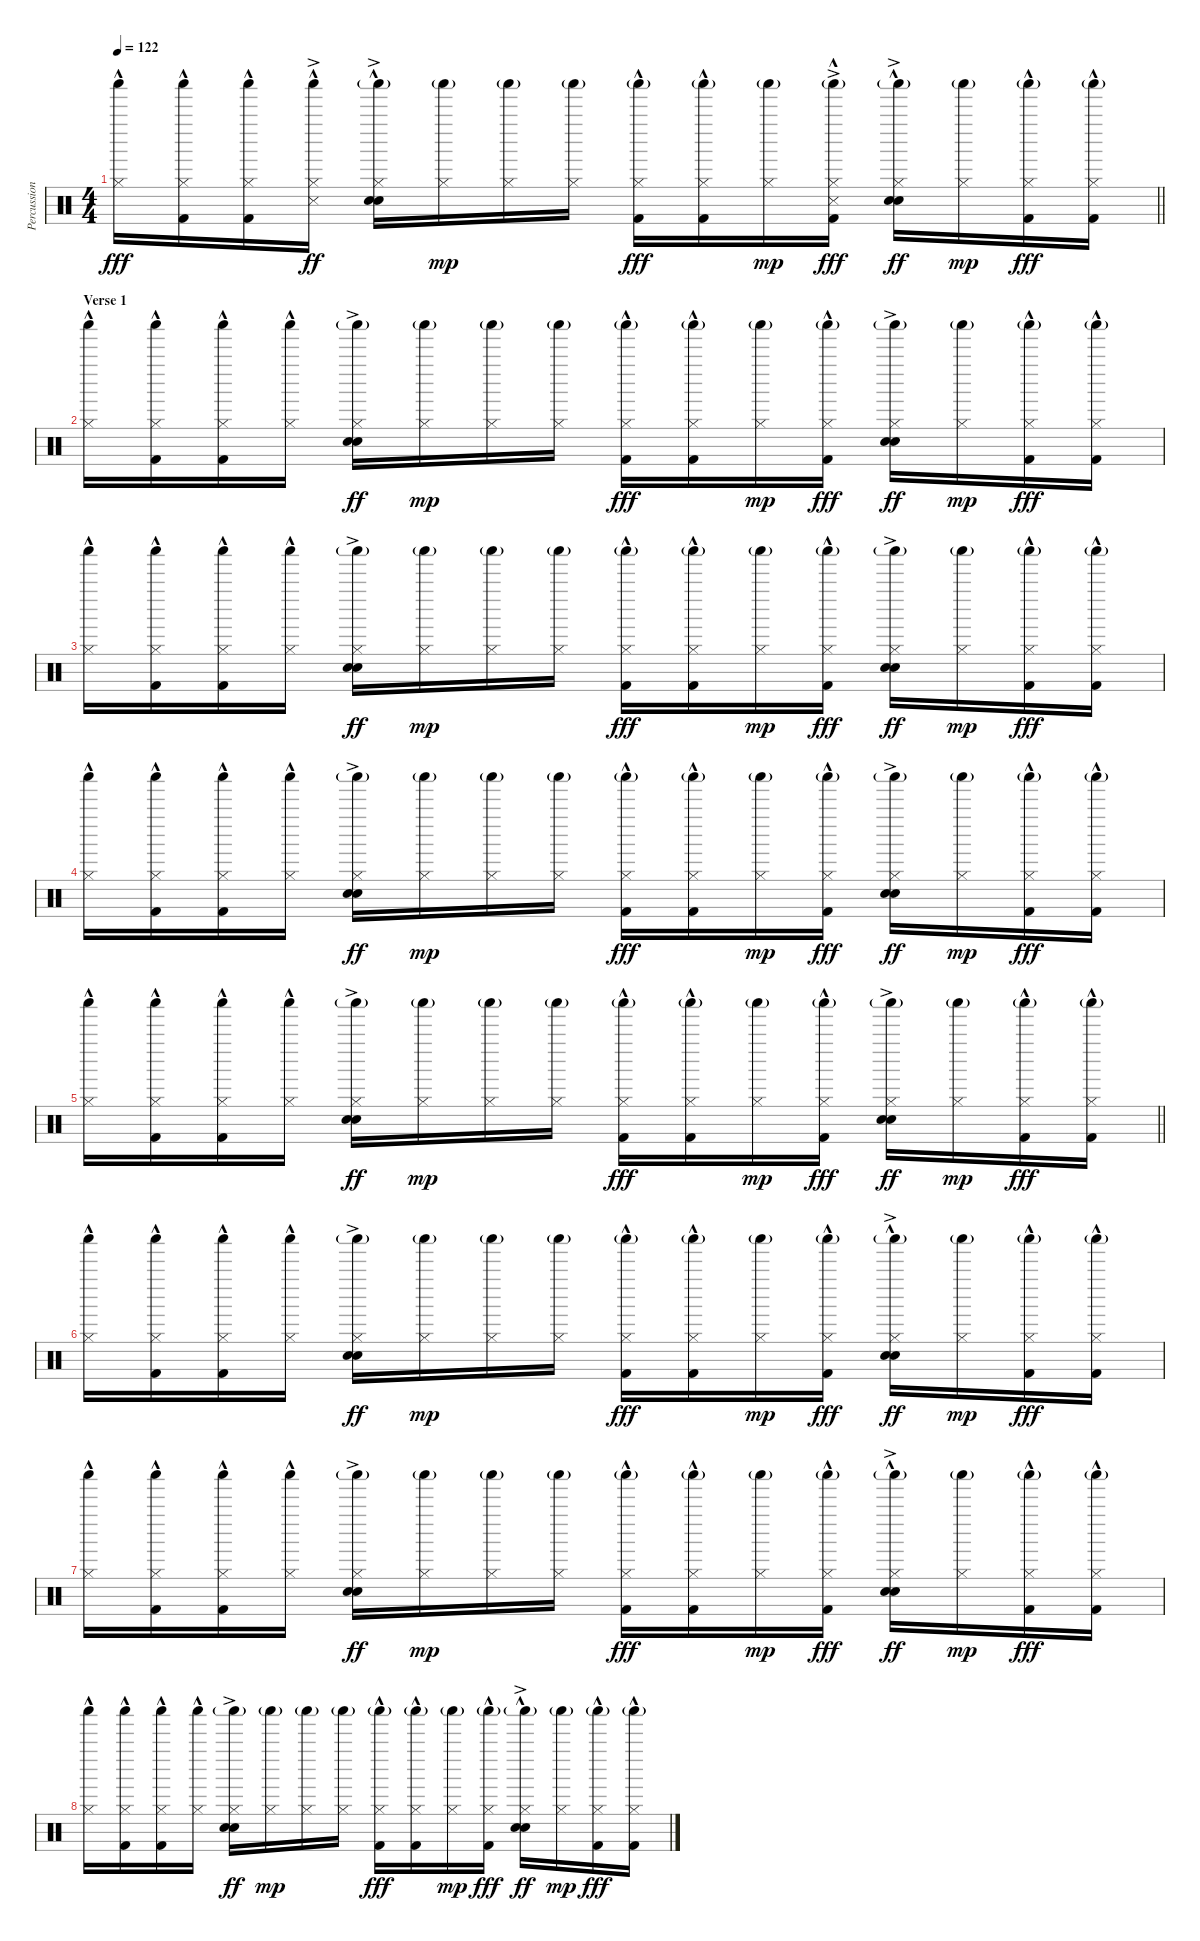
\track ("Percussion" "Percussion") {instrument percussion}
\staff {score}
\articulation defaults
\ts (4 4)
\tempo 122
\clef neutral
\barLineRight lightlight
\ks c
("Shaker (hit)" "Hi-Hat (closed)"{hac}).16{dy fff} ("Shaker (hit)" "Hi-Hat (closed)"{hac} "Kick (hit) 2"{hac}).16 ("Shaker (hit)" "Hi-Hat (closed)"{hac} "Kick (hit) 2"{hac}).16 ("Shaker (hit)" "Hi-Hat (closed)"{hac} "Snare (side stick) 3"{ac}).16{dy ff} ("Shaker (hit)"{g} "Hi-Hat (closed)" "Hand Clap (hit)"{hac} "Snare (hit) 2"{ac}).16 ("Shaker (hit)"{g} "Hi-Hat (closed)").16{dy mp} ("Shaker (hit)"{g} "Hi-Hat (closed)").16 ("Shaker (hit)"{g} "Hi-Hat (closed)").16 ("Shaker (hit)"{g} "Hi-Hat (closed)" "Kick (hit) 2"{hac}).16{dy fff} ("Shaker (hit)"{g} "Hi-Hat (closed)" "Kick (hit) 2"{hac}).16 ("Shaker (hit)"{g} "Hi-Hat (closed)").16{dy mp} ("Shaker (hit)"{g} "Hi-Hat (closed)" "Snare (side stick) 3"{ac} "Kick (hit) 2"{hac}).16{dy fff} ("Shaker (hit)"{g} "Hi-Hat (closed)" "Hand Clap (hit)"{hac} "Snare (hit) 2"{ac}).16{dy ff} ("Shaker (hit)"{g} "Hi-Hat (closed)").16{dy mp} ("Shaker (hit)"{g} "Hi-Hat (closed)" "Kick (hit) 2"{hac}).16{dy fff} ("Shaker (hit)"{g} "Hi-Hat (closed)" "Kick (hit) 2"{hac}).16 |
\section ("" "Verse 1")
("Shaker (hit)" "Hi-Hat (closed)"{hac}).16 ("Shaker (hit)" "Hi-Hat (closed)"{hac} "Kick (hit) 2"{hac}).16 ("Shaker (hit)" "Hi-Hat (closed)"{hac} "Kick (hit) 2"{hac}).16 ("Shaker (hit)" "Hi-Hat (closed)"{hac}).16 ("Shaker (hit)"{g} "Hi-Hat (closed)" "Hand Clap (hit)" "Snare (hit) 2"{ac}).16{dy ff} ("Shaker (hit)"{g} "Hi-Hat (closed)").16{dy mp} ("Shaker (hit)"{g} "Hi-Hat (closed)").16 ("Shaker (hit)"{g} "Hi-Hat (closed)").16 ("Shaker (hit)"{g} "Hi-Hat (closed)" "Kick (hit) 2"{hac}).16{dy fff} ("Shaker (hit)"{g} "Hi-Hat (closed)" "Kick (hit) 2"{hac}).16 ("Shaker (hit)"{g} "Hi-Hat (closed)").16{dy mp} ("Shaker (hit)"{g} "Hi-Hat (closed)" "Kick (hit) 2"{hac}).16{dy fff} ("Shaker (hit)"{g} "Hi-Hat (closed)" "Hand Clap (hit)"{ac} "Snare (hit) 2"{ac}).16{dy ff} ("Shaker (hit)"{g} "Hi-Hat (closed)").16{dy mp} ("Shaker (hit)"{g} "Hi-Hat (closed)" "Kick (hit) 2"{hac}).16{dy fff} ("Shaker (hit)"{g} "Hi-Hat (closed)" "Kick (hit) 2"{hac}).16 |
("Shaker (hit)" "Hi-Hat (closed)"{hac}).16 ("Shaker (hit)" "Hi-Hat (closed)"{hac} "Kick (hit) 2"{hac}).16 ("Shaker (hit)" "Hi-Hat (closed)"{hac} "Kick (hit) 2"{hac}).16 ("Shaker (hit)" "Hi-Hat (closed)"{hac}).16 ("Shaker (hit)"{g} "Hi-Hat (closed)" "Hand Clap (hit)" "Snare (hit) 2"{ac}).16{dy ff} ("Shaker (hit)"{g} "Hi-Hat (closed)").16{dy mp} ("Shaker (hit)"{g} "Hi-Hat (closed)").16 ("Shaker (hit)"{g} "Hi-Hat (closed)").16 ("Shaker (hit)"{g} "Hi-Hat (closed)" "Kick (hit) 2"{hac}).16{dy fff} ("Shaker (hit)"{g} "Hi-Hat (closed)" "Kick (hit) 2"{hac}).16 ("Shaker (hit)"{g} "Hi-Hat (closed)").16{dy mp} ("Shaker (hit)"{g} "Hi-Hat (closed)" "Kick (hit) 2"{hac}).16{dy fff} ("Shaker (hit)"{g} "Hi-Hat (closed)" "Hand Clap (hit)"{ac} "Snare (hit) 2"{ac}).16{dy ff} ("Shaker (hit)"{g} "Hi-Hat (closed)").16{dy mp} ("Shaker (hit)"{g} "Hi-Hat (closed)" "Kick (hit) 2"{hac}).16{dy fff} ("Shaker (hit)"{g} "Hi-Hat (closed)" "Kick (hit) 2"{hac}).16 |
("Shaker (hit)" "Hi-Hat (closed)"{hac}).16 ("Shaker (hit)" "Hi-Hat (closed)"{hac} "Kick (hit) 2"{hac}).16 ("Shaker (hit)" "Hi-Hat (closed)"{hac} "Kick (hit) 2"{hac}).16 ("Shaker (hit)" "Hi-Hat (closed)"{hac}).16 ("Shaker (hit)"{g} "Hi-Hat (closed)" "Hand Clap (hit)" "Snare (hit) 2"{ac}).16{dy ff} ("Shaker (hit)"{g} "Hi-Hat (closed)").16{dy mp} ("Shaker (hit)"{g} "Hi-Hat (closed)").16 ("Shaker (hit)"{g} "Hi-Hat (closed)").16 ("Shaker (hit)"{g} "Hi-Hat (closed)" "Kick (hit) 2"{hac}).16{dy fff} ("Shaker (hit)"{g} "Hi-Hat (closed)" "Kick (hit) 2"{hac}).16 ("Shaker (hit)"{g} "Hi-Hat (closed)").16{dy mp} ("Shaker (hit)"{g} "Hi-Hat (closed)" "Kick (hit) 2"{hac}).16{dy fff} ("Shaker (hit)"{g} "Hi-Hat (closed)" "Hand Clap (hit)"{ac} "Snare (hit) 2"{ac}).16{dy ff} ("Shaker (hit)"{g} "Hi-Hat (closed)").16{dy mp} ("Shaker (hit)"{g} "Hi-Hat (closed)" "Kick (hit) 2"{hac}).16{dy fff} ("Shaker (hit)"{g} "Hi-Hat (closed)" "Kick (hit) 2"{hac}).16 |
\barLineRight lightlight
("Shaker (hit)" "Hi-Hat (closed)"{hac}).16 ("Shaker (hit)" "Hi-Hat (closed)"{hac} "Kick (hit) 2"{hac}).16 ("Shaker (hit)" "Hi-Hat (closed)"{hac} "Kick (hit) 2"{hac}).16 ("Shaker (hit)" "Hi-Hat (closed)"{hac}).16 ("Shaker (hit)"{g} "Hi-Hat (closed)" "Hand Clap (hit)" "Snare (hit) 2"{ac}).16{dy ff} ("Shaker (hit)"{g} "Hi-Hat (closed)").16{dy mp} ("Shaker (hit)"{g} "Hi-Hat (closed)").16 ("Shaker (hit)"{g} "Hi-Hat (closed)").16 ("Shaker (hit)"{g} "Hi-Hat (closed)" "Kick (hit) 2"{hac}).16{dy fff} ("Shaker (hit)"{g} "Hi-Hat (closed)" "Kick (hit) 2"{hac}).16 ("Shaker (hit)"{g} "Hi-Hat (closed)").16{dy mp} ("Shaker (hit)"{g} "Hi-Hat (closed)" "Kick (hit) 2"{hac}).16{dy fff} ("Shaker (hit)"{g} "Hi-Hat (closed)" "Hand Clap (hit)"{ac} "Snare (hit) 2"{ac}).16{dy ff} ("Shaker (hit)"{g} "Hi-Hat (closed)").16{dy mp} ("Shaker (hit)"{g} "Hi-Hat (closed)" "Kick (hit) 2"{hac}).16{dy fff} ("Shaker (hit)"{g} "Hi-Hat (closed)" "Kick (hit) 2"{hac}).16 |
("Shaker (hit)" "Hi-Hat (closed)"{hac}).16 ("Shaker (hit)" "Hi-Hat (closed)"{hac} "Kick (hit) 2"{hac}).16 ("Shaker (hit)" "Hi-Hat (closed)"{hac} "Kick (hit) 2"{hac}).16 ("Shaker (hit)" "Hi-Hat (closed)"{hac}).16 ("Shaker (hit)"{g} "Hi-Hat (closed)" "Hand Clap (hit)"{ac} "Snare (hit) 2"{ac}).16{dy ff} ("Shaker (hit)"{g} "Hi-Hat (closed)").16{dy mp} ("Shaker (hit)"{g} "Hi-Hat (closed)").16 ("Shaker (hit)"{g} "Hi-Hat (closed)").16 ("Shaker (hit)"{g} "Hi-Hat (closed)" "Kick (hit) 2"{hac}).16{dy fff} ("Shaker (hit)"{g} "Hi-Hat (closed)" "Kick (hit) 2"{hac}).16 ("Shaker (hit)"{g} "Hi-Hat (closed)").16{dy mp} ("Shaker (hit)"{g} "Hi-Hat (closed)" "Kick (hit) 2"{hac}).16{dy fff} ("Shaker (hit)"{g} "Hi-Hat (closed)" "Hand Clap (hit)"{hac} "Snare (hit) 2"{ac}).16{dy ff} ("Shaker (hit)"{g} "Hi-Hat (closed)").16{dy mp} ("Shaker (hit)"{g} "Hi-Hat (closed)" "Kick (hit) 2"{hac}).16{dy fff} ("Shaker (hit)"{g} "Hi-Hat (closed)" "Kick (hit) 2"{hac}).16 |
("Shaker (hit)" "Hi-Hat (closed)"{hac}).16 ("Shaker (hit)" "Hi-Hat (closed)"{hac} "Kick (hit) 2"{hac}).16 ("Shaker (hit)" "Hi-Hat (closed)"{hac} "Kick (hit) 2"{hac}).16 ("Shaker (hit)" "Hi-Hat (closed)"{hac}).16 ("Shaker (hit)"{g} "Hi-Hat (closed)" "Hand Clap (hit)"{ac} "Snare (hit) 2"{ac}).16{dy ff} ("Shaker (hit)"{g} "Hi-Hat (closed)").16{dy mp} ("Shaker (hit)"{g} "Hi-Hat (closed)").16 ("Shaker (hit)"{g} "Hi-Hat (closed)").16 ("Shaker (hit)"{g} "Hi-Hat (closed)" "Kick (hit) 2"{hac}).16{dy fff} ("Shaker (hit)"{g} "Hi-Hat (closed)" "Kick (hit) 2"{hac}).16 ("Shaker (hit)"{g} "Hi-Hat (closed)").16{dy mp} ("Shaker (hit)"{g} "Hi-Hat (closed)" "Kick (hit) 2"{hac}).16{dy fff} ("Shaker (hit)"{g} "Hi-Hat (closed)" "Hand Clap (hit)"{hac} "Snare (hit) 2"{ac}).16{dy ff} ("Shaker (hit)"{g} "Hi-Hat (closed)").16{dy mp} ("Shaker (hit)"{g} "Hi-Hat (closed)" "Kick (hit) 2"{hac}).16{dy fff} ("Shaker (hit)"{g} "Hi-Hat (closed)" "Kick (hit) 2"{hac}).16 |
("Shaker (hit)" "Hi-Hat (closed)"{hac}).16 ("Shaker (hit)" "Hi-Hat (closed)"{hac} "Kick (hit) 2"{hac}).16 ("Shaker (hit)" "Hi-Hat (closed)"{hac} "Kick (hit) 2"{hac}).16 ("Shaker (hit)" "Hi-Hat (closed)"{hac}).16 ("Shaker (hit)"{g} "Hi-Hat (closed)" "Hand Clap (hit)"{ac} "Snare (hit) 2"{ac}).16{dy ff} ("Shaker (hit)"{g} "Hi-Hat (closed)").16{dy mp} ("Shaker (hit)"{g} "Hi-Hat (closed)").16 ("Shaker (hit)"{g} "Hi-Hat (closed)").16 ("Shaker (hit)"{g} "Hi-Hat (closed)" "Kick (hit) 2"{hac}).16{dy fff} ("Shaker (hit)"{g} "Hi-Hat (closed)" "Kick (hit) 2"{hac}).16 ("Shaker (hit)"{g} "Hi-Hat (closed)").16{dy mp} ("Shaker (hit)"{g} "Hi-Hat (closed)" "Kick (hit) 2"{hac}).16{dy fff} ("Shaker (hit)"{g} "Hi-Hat (closed)" "Hand Clap (hit)"{hac} "Snare (hit) 2"{ac}).16{dy ff} ("Shaker (hit)"{g} "Hi-Hat (closed)").16{dy mp} ("Shaker (hit)"{g} "Hi-Hat (closed)" "Kick (hit) 2"{hac}).16{dy fff} ("Shaker (hit)"{g} "Hi-Hat (closed)" "Kick (hit) 2"{hac}).16
